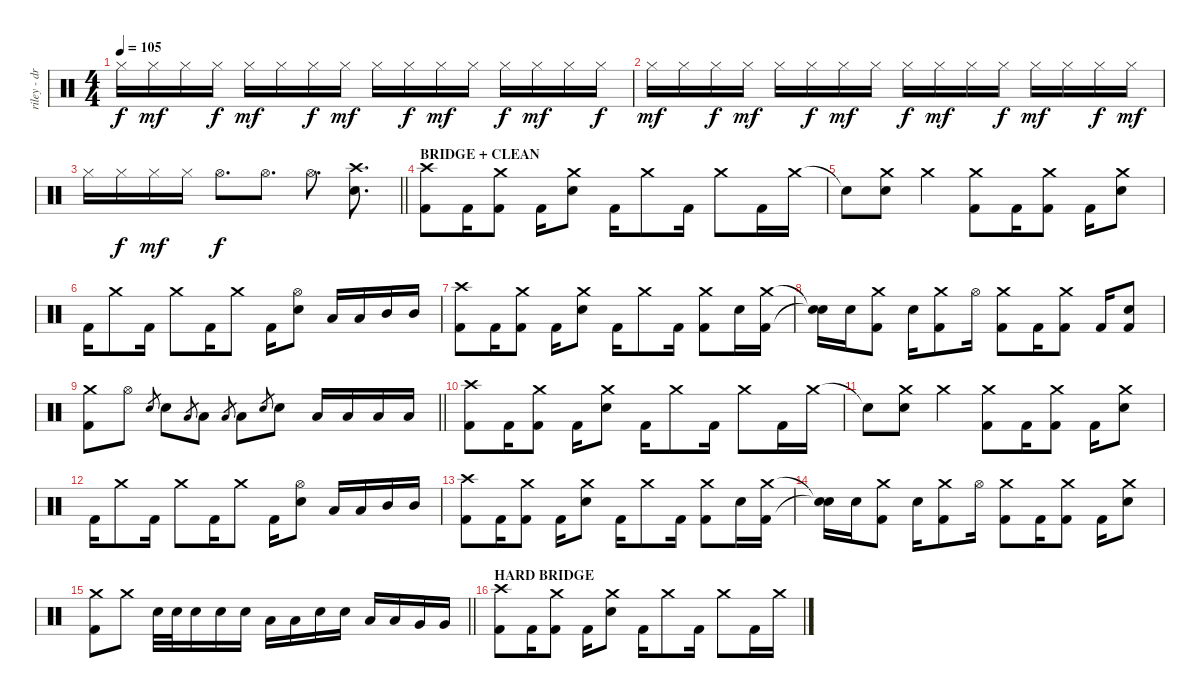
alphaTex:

\track ("riley - drums" "riley - dr") {instrument percussion}
\staff {score}
\articulation defaults
\ts (4 4)
\tempo 105
\clef neutral
\ks c "Hi-Hat (closed)".16{dy f} "Hi-Hat (closed)".16{dy mf} "Hi-Hat (closed)".16 "Hi-Hat (closed)".16{dy f} "Hi-Hat (closed)".16{dy mf} "Hi-Hat (closed)".16 "Hi-Hat (closed)".16{dy f} "Hi-Hat (closed)".16{dy mf} "Hi-Hat (closed)".16 "Hi-Hat (closed)".16{dy f} "Hi-Hat (closed)".16{dy mf} "Hi-Hat (closed)".16 "Hi-Hat (closed)".16{dy f} "Hi-Hat (closed)".16{dy mf} "Hi-Hat (closed)".16 "Hi-Hat (closed)".16{dy f}
|
"Hi-Hat (closed)".16{dy mf} "Hi-Hat (closed)".16 "Hi-Hat (closed)".16{dy f} "Hi-Hat (closed)".16{dy mf} "Hi-Hat (closed)".16 "Hi-Hat (closed)".16{dy f} "Hi-Hat (closed)".16{dy mf} "Hi-Hat (closed)".16 "Hi-Hat (closed)".16{dy f} "Hi-Hat (closed)".16{dy mf} "Hi-Hat (closed)".16 "Hi-Hat (closed)".16{dy f} "Hi-Hat (closed)".16{dy mf} "Hi-Hat (closed)".16 "Hi-Hat (closed)".16{dy f} "Hi-Hat (closed)".16{dy mf} |
\barLineRight lightlight "Hi-Hat (closed)".16 "Hi-Hat (closed)".16{dy f} "Hi-Hat (closed)".16{dy mf} "Hi-Hat (closed)".16 "Hi-Hat (open)".8{d dy f} "Hi-Hat (open)".8{d} "Hi-Hat (open)".8{d}
("Electric Snare (hit)" "Crash high (hit)").8{d} |
\section ("" "BRIDGE + CLEAN")
("Crash high (hit)" "Kick (hit) 2").8 "Kick (hit) 2".16 ("Crash medium (hit)" "Kick (hit) 2").8 "Kick (hit) 2".16 ("Crash medium (hit)" "Electric Snare (hit)").8 "Kick (hit) 2".16 "Crash medium (hit)".8 "Kick (hit) 2".16 "Crash medium (hit)".8 "Kick (hit) 2".16 "Crash medium (hit)".16 |
"Snare (hit)"{t}.8 ("Electric Snare (hit)" "Crash medium (hit)").8 "Crash medium (hit)".4 ("Crash medium (hit)" "Kick (hit) 2").8 "Kick (hit) 2".16 ("Crash medium (hit)" "Kick (hit) 2").8 "Kick (hit) 2".16 ("Crash medium (hit)" "Electric Snare (hit)").8 |
"Kick (hit) 2".16 "Crash medium (hit)".8 "Kick (hit) 2".16 "Crash medium (hit)".8 "Kick (hit) 2".16 "Crash medium (hit)".8 "Kick (hit) 2".16 ("Electric Snare (hit)" "Hi-Hat (open)").8 "Low Tom (hit)".16 "Low Tom (hit)".16 "Mid Tom (hit)".16 "Mid Tom (hit)".16 |
("Crash high (hit)" "Kick (hit) 2").8 "Kick (hit) 2".16 ("Crash medium (hit)" "Kick (hit) 2").8 "Kick (hit) 2".16 ("Crash medium (hit)" "Electric Snare (hit)").8 "Kick (hit) 2".16 "Crash medium (hit)".8 "Kick (hit) 2".16 ("Crash medium (hit)" "Kick (hit) 2").8 "Electric Snare (hit)".16 ("Kick (hit) 2" "Crash medium (hit)").16 |
("Snare (hit)"{t} "Snare (hit)"{t}).16 "Electric Snare (hit)".16 ("Kick (hit) 2" "Crash medium (hit)").8 "Electric Snare (hit)".16 ("Crash medium (hit)" "Kick (hit) 2").8 "Hi-Hat (open)".16 ("Crash medium (hit)" "Kick (hit) 2").8 "Kick (hit) 2".16 ("Crash medium (hit)" "Kick (hit) 2").8 "Kick (hit) 2".16 ("Kick (hit) 2" "Electric Snare (hit)").8 |
\barLineRight lightlight
("Kick (hit) 2" "Crash medium (hit)").8 "Hi-Hat (open)".8 "Electric Snare (hit)".8{gr} "Electric Snare (hit)".8 "Low Tom (hit)".8{gr} "Low Tom (hit)".8 "Low Floor Tom (hit)".8{gr} "Low Floor Tom (hit)".8 "Electric Snare (hit)".8{gr} "Electric Snare (hit)".8 "Low Tom (hit)".16 "Low Tom (hit)".16 "Low Floor Tom (hit)".16 "Low Floor Tom (hit)".16 |
("Crash high (hit)" "Kick (hit) 2").8 "Kick (hit) 2".16 ("Crash medium (hit)" "Kick (hit) 2").8 "Kick (hit) 2".16 ("Crash medium (hit)" "Electric Snare (hit)").8 "Kick (hit) 2".16 "Crash medium (hit)".8 "Kick (hit) 2".16 "Crash medium (hit)".8 "Kick (hit) 2".16 "Crash medium (hit)".16 |
"Snare (hit)"{t}.8 ("Electric Snare (hit)" "Crash medium (hit)").8 "Crash medium (hit)".4 ("Crash medium (hit)" "Kick (hit) 2").8 "Kick (hit) 2".16 ("Crash medium (hit)" "Kick (hit) 2").8 "Kick (hit) 2".16 ("Crash medium (hit)" "Electric Snare (hit)").8 |
"Kick (hit) 2".16 "Crash medium (hit)".8 "Kick (hit) 2".16 "Crash medium (hit)".8 "Kick (hit) 2".16 "Crash medium (hit)".8 "Kick (hit) 2".16 ("Electric Snare (hit)" "Hi-Hat (open)").8 "Low Tom (hit)".16 "Low Tom (hit)".16 "Mid Tom (hit)".16 "Mid Tom (hit)".16 |
("Crash high (hit)" "Kick (hit) 2").8 "Kick (hit) 2".16 ("Crash medium (hit)" "Kick (hit) 2").8 "Kick (hit) 2".16 ("Crash medium (hit)" "Electric Snare (hit)").8 "Kick (hit) 2".16 "Crash medium (hit)".8 "Kick (hit) 2".16 ("Crash medium (hit)" "Kick (hit) 2").8 "Electric Snare (hit)".16 ("Kick (hit) 2" "Crash medium (hit)").16 |
("Snare (hit)"{t} "Snare (hit)"{t}).16 "Electric Snare (hit)".16 ("Kick (hit) 2" "Crash medium (hit)").8 "Electric Snare (hit)".16 ("Crash medium (hit)" "Kick (hit) 2").8 "Hi-Hat (open)".16 ("Crash medium (hit)" "Kick (hit) 2").8 "Kick (hit) 2".16 ("Crash medium (hit)" "Kick (hit) 2").8 "Kick (hit) 2".16 ("Crash medium (hit)" "Electric Snare (hit)").8 |
\barLineRight lightlight
("Kick (hit) 2" "Crash medium (hit)").8 "Crash medium (hit)".8 "Electric Snare (hit)".32 "Electric Snare (hit)".32 "Electric Snare (hit)".16 "Electric Snare (hit)".16 "Electric Snare (hit)".16 "Low Tom (hit)".16 "Low Tom (hit)".16 "Electric Snare (hit)".16 "Electric Snare (hit)".16 "Low Tom (hit)".16 "Low Tom (hit)".16 "Very Low Tom (hit)".16 "Very Low Tom (hit)".16 |
\section ("" "HARD BRIDGE")
("Crash high (hit)" "Kick (hit) 2").8 "Kick (hit) 2".16 ("Crash medium (hit)" "Kick (hit) 2").8 "Kick (hit) 2".16 ("Crash medium (hit)" "Electric Snare (hit)").8 "Kick (hit) 2".16 "Crash medium (hit)".8 "Kick (hit) 2".16 "Crash medium (hit)".8 "Kick (hit) 2".16 "Crash medium (hit)".16
